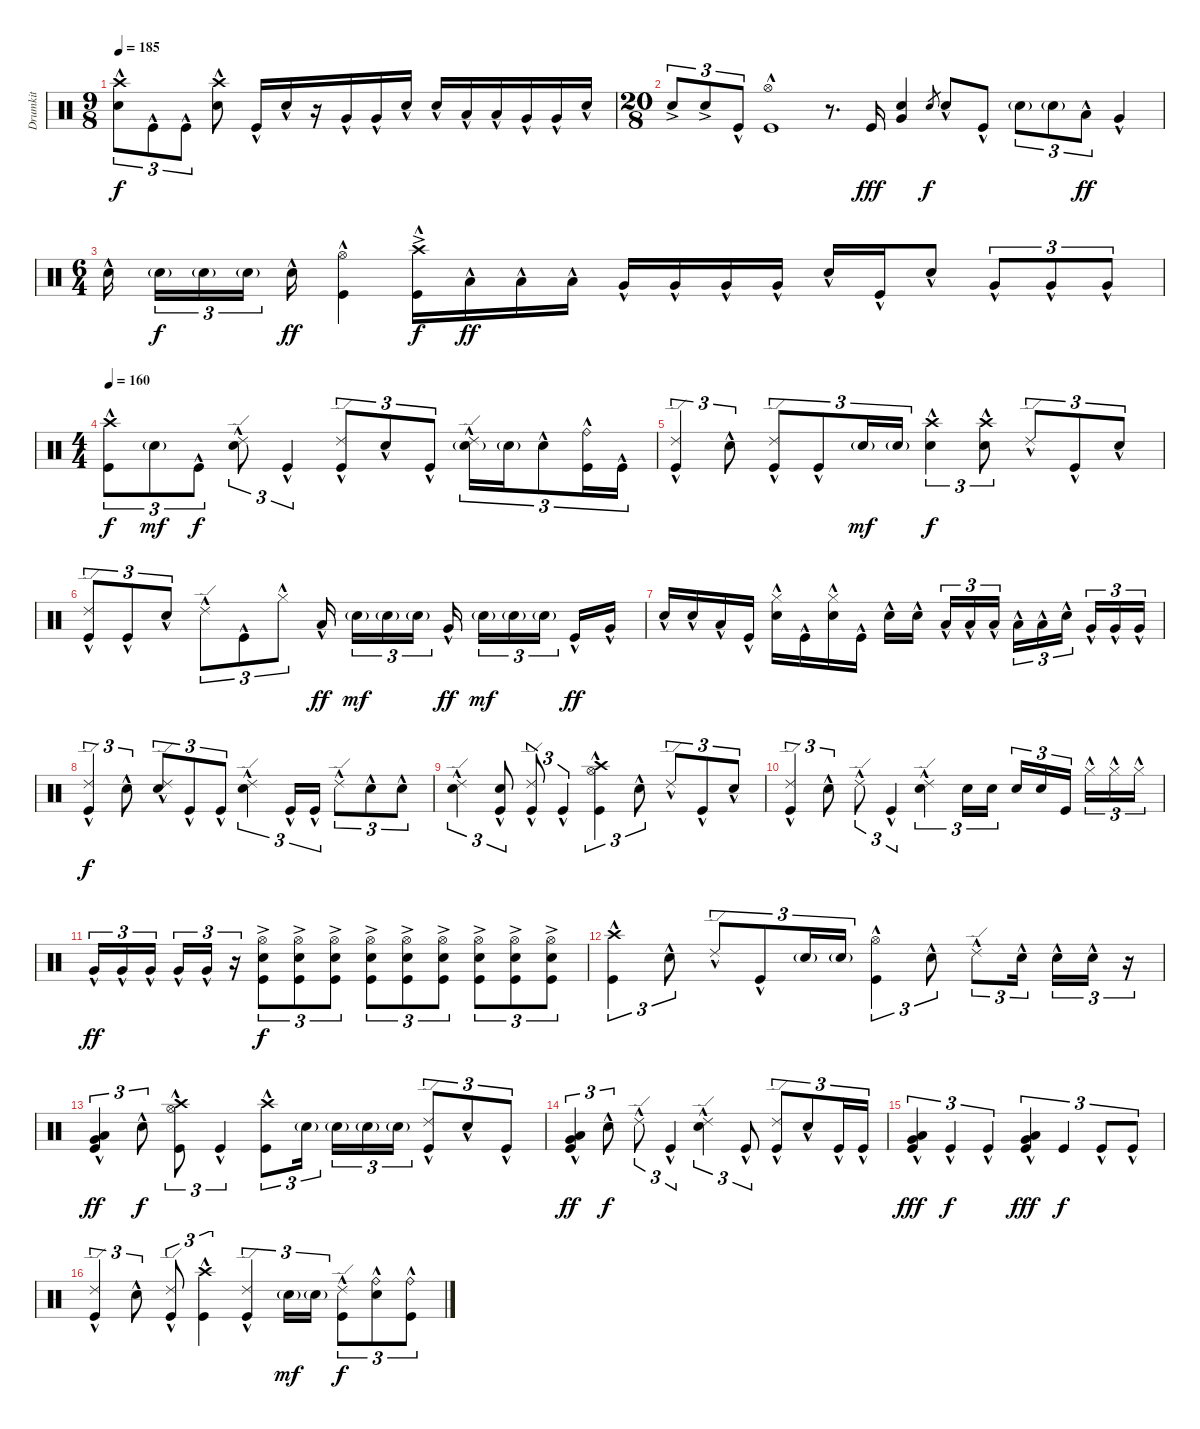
\track ("Drumkit" "Drumkit") {instrument percussion}
\staff {score}
\articulation defaults
\ts (9 8)
\tempo 185
\clef neutral
\ks c
("Snare (hit) 2"{hac} "Crash high (hit)"{hac}).8{tu (3 2) dy f} "Kick (hit)"{hac}.8{tu (3 2)} "Kick (hit)"{hac}.8{tu (3 2)} ("Snare (hit) 2"{hac} "Crash high (hit)"{hac}).8 "Kick (hit)"{hac}.16 "Snare (hit) 2"{hac}.16 r.16 "Very Low Tom (hit)"{hac}.16 "Very Low Tom (hit)"{hac}.16 "Snare (hit) 2"{hac}.16 "Snare (hit) 2"{hac}.16 "Low Tom (hit)"{hac}.16 "Low Tom (hit)"{hac}.16 "Very Low Tom (hit)"{hac}.16 "Very Low Tom (hit)"{hac}.16 "Snare (hit) 2"{hac}.16 |
\ts (20 8)
"Snare (hit) 2"{ac}.8{tu (3 2)} "Snare (hit) 2"{ac}.8{tu (3 2)} "Kick (hit)"{hac}.8{tu (3 2)} ("Kick (hit)"{hac} "Hi-Hat (open)"{hac}).1 r.8{d} "Kick (hit)".16{dy fff} ("Very Low Tom (hit)" "Snare (hit) 2").4 "Snare (hit)".8{gr dy f} "Snare (hit) 2"{hac}.8 "Kick (hit)"{hac}.8 "Snare (hit) 2"{g}.8{tu (3 2)} "Snare (hit) 2"{g}.8{tu (3 2)} "Low Tom (hit)"{hac}.8{tu (3 2) dy ff} "Very Low Tom (hit)"{hac}.4 |
\ts (6 4)
"Snare (hit) 2"{hac}.16 "Snare (hit) 2"{g}.16{tu (3 2) dy f} "Snare (hit) 2"{g}.16{tu (3 2)} "Snare (hit) 2"{g}.16{tu (3 2)} "Snare (hit) 2"{hac}.16{dy ff} ("Kick (hit)"{hac} "Hi-Hat (open)"{hac}).4 ("Crash high (hit)"{ac} "Kick (hit)"{hac}).16{dy f} "Low Tom (hit)"{hac}.16{dy ff} "Low Tom (hit)"{hac}.16 "Low Tom (hit)"{hac}.16 "Very Low Tom (hit)"{hac}.16 "Very Low Tom (hit)"{hac}.16 "Very Low Tom (hit)"{hac}.16 "Very Low Tom (hit)"{hac}.16 "Snare (hit) 2"{hac}.16 "Kick (hit)"{hac}.16 "Snare (hit) 2"{hac}.8 "Very Low Tom (hit)"{hac}.8{tu (3 2)} "Very Low Tom (hit)"{hac}.8{tu (3 2)} "Very Low Tom (hit)"{hac}.8{tu (3 2)} |
\ts (4 4)
\tempo 160
("Kick (hit)"{hac} "Crash high (hit)"{hac}).8{tu (3 2) dy f} "Snare (hit) 2"{g}.8{tu (3 2) dy mf} "Kick (hit)"{hac}.8{tu (3 2) dy f} ("Snare (hit) 2"{hac} "Ride (edge) 2"{hac}).8{tu (3 2)} "Kick (hit)"{hac}.4{tu (3 2)} ("Kick (hit)"{hac} "Ride (edge) 2"{hac}).8{tu (3 2)} "Snare (hit) 2"{hac}.8{tu (3 2)} "Kick (hit)"{hac}.8{tu (3 2)} ("Ride (edge) 2"{hac} "Snare (hit) 2"{g}).16{tu (3 2)} "Snare (hit) 2"{g}.16{tu (3 2)} "Snare (hit) 2"{hac}.8{tu (3 2)} ("Ride (bell)"{hac} "Kick (hit)"{hac}).16{tu (3 2)} "Kick (hit)"{hac}.16{tu (3 2)} |
("Kick (hit)"{hac} "Ride (edge) 2"{hac}).4{tu (3 2)} "Snare (hit) 2"{hac}.8{tu (3 2)} ("Kick (hit)"{hac} "Ride (edge) 2"{hac}).8{tu (3 2)} "Kick (hit)"{hac}.8{tu (3 2)} "Snare (hit) 2"{g}.16{tu (3 2) dy mf} "Snare (hit) 2"{g}.16{tu (3 2)} ("Snare (hit) 2"{hac} "Crash high (hit)"{hac}).4{tu (3 2) dy f} ("Snare (hit) 2"{hac} "Crash high (hit)"{hac}).8{tu (3 2)} "Ride (edge) 2"{hac}.8{tu (3 2)} "Kick (hit)"{hac}.8{tu (3 2)} "Snare (hit) 2"{hac}.8{tu (3 2)} |
("Kick (hit)"{hac} "Ride (edge) 2"{hac}).8{tu (3 2)} "Kick (hit)"{hac}.8{tu (3 2)} "Snare (hit) 2"{hac}.8{tu (3 2)} "Ride (edge) 2"{hac}.8{tu (3 2)} "Kick (hit)"{hac}.8{tu (3 2)} "Hi-Hat (closed)"{hac}.8{tu (3 2)} "Low Tom (hit)"{hac}.16{dy ff} "Snare (hit) 2"{g}.16{tu (3 2) dy mf} "Snare (hit) 2"{g}.16{tu (3 2)} "Snare (hit) 2"{g}.16{tu (3 2)} "Very Low Tom (hit)"{hac}.16{dy ff} "Snare (hit) 2"{g}.16{tu (3 2) dy mf} "Snare (hit) 2"{g}.16{tu (3 2)} "Snare (hit) 2"{g}.16{tu (3 2)} "Kick (hit)"{hac}.16{dy ff} "Very Low Tom (hit)"{hac}.16 |
"Snare (hit) 2"{hac}.16 "Snare (hit) 2"{hac}.16 "Low Tom (hit)"{hac}.16 "Kick (hit)"{hac}.16 ("Snare (hit) 2"{hac} "Hi-Hat (closed)"{hac}).16 "Kick (hit)"{hac}.16 ("Snare (hit) 2"{hac} "Hi-Hat (closed)"{hac}).16 "Kick (hit)"{hac}.16 "Snare (hit) 2"{hac}.16 "Snare (hit) 2"{hac}.16 "Low Tom (hit)"{hac}.16{tu (3 2)} "Low Tom (hit)"{hac}.16{tu (3 2)} "Low Tom (hit)"{hac}.16{tu (3 2)} "Low Tom (hit)"{hac}.16{tu (3 2)} "Low Tom (hit)"{hac}.16{tu (3 2)} "Snare (hit) 2"{hac}.16{tu (3 2)} "Very Low Tom (hit)"{hac}.16{tu (3 2)} "Very Low Tom (hit)"{hac}.16{tu (3 2)} "Very Low Tom (hit)"{hac}.16{tu (3 2)} |
("Kick (hit)"{hac} "Ride (edge) 2"{hac}).4{tu (3 2) dy f} "Snare (hit) 2"{hac}.8{tu (3 2)} ("Snare (hit) 2"{hac} "Ride (edge) 2"{hac}).8{tu (3 2)} "Kick (hit)"{hac}.8{tu (3 2)} "Kick (hit)"{hac}.8{tu (3 2)} ("Snare (hit) 2"{hac} "Ride (edge) 2"{hac}).4{tu (3 2)} "Kick (hit)"{hac}.16{tu (3 2)} "Kick (hit)"{hac}.16{tu (3 2)} "Ride (edge) 2"{hac}.8{tu (3 2)} "Snare (hit) 2"{hac}.8{tu (3 2)} "Snare (hit) 2"{hac}.8{tu (3 2)} |
("Snare (hit) 2"{hac} "Ride (edge) 2"{hac}).4{tu (3 2)} ("Snare (hit) 2"{hac} "Kick (hit)"{hac}).8{tu (3 2)} ("Kick (hit)"{hac} "Ride (edge) 2"{hac}).8{tu (3 2)} "Kick (hit)"{hac}.4{tu (3 2)} ("Kick (hit)"{hac} "Hi-Hat (open)"{hac} "Crash high (hit)"{hac}).4{tu (3 2)} "Snare (hit) 2"{hac}.8{tu (3 2)} "Ride (edge) 2"{hac}.8{tu (3 2)} "Kick (hit)"{hac}.8{tu (3 2)} "Snare (hit) 2"{hac}.8{tu (3 2)} |
("Kick (hit)"{hac} "Ride (edge) 2"{hac}).4{tu (3 2)} "Snare (hit) 2"{hac}.8{tu (3 2)} "Ride (edge) 2"{hac}.8{tu (3 2)} "Kick (hit)"{hac}.4{tu (3 2)} ("Snare (hit) 2"{hac} "Ride (edge) 2"{hac}).4{tu (3 2)} "Snare (hit) 2".16{tu (3 2)} "Snare (hit) 2".16{tu (3 2)} "Snare (hit) 2".16{tu (3 2)} "Snare (hit) 2".16{tu (3 2)} "Kick (hit)".16{tu (3 2)} "Hi-Hat (closed)"{hac}.16{tu (3 2)} "Hi-Hat (closed)"{hac}.16{tu (3 2)} "Hi-Hat (closed)"{hac}.16{tu (3 2)} |
"Very Low Tom (hit)"{hac}.16{tu (3 2) dy ff} "Very Low Tom (hit)"{hac}.16{tu (3 2)} "Very Low Tom (hit)"{hac}.16{tu (3 2)} "Very Low Tom (hit)"{hac}.16{tu (3 2)} "Very Low Tom (hit)"{hac}.16{tu (3 2)} r.16{tu (3 2)} ("Snare (hit) 2"{ac} "Hi-Hat (open)"{ac} "Kick (hit)"{ac}).8{tu (3 2) dy f} ("Snare (hit) 2"{ac} "Hi-Hat (open)"{ac} "Kick (hit)"{ac}).8{tu (3 2)} ("Snare (hit) 2"{ac} "Hi-Hat (open)"{ac} "Kick (hit)"{ac}).8{tu (3 2)} ("Snare (hit) 2"{ac} "Hi-Hat (open)"{ac} "Kick (hit)"{ac}).8{tu (3 2)} ("Snare (hit) 2"{ac} "Hi-Hat (open)"{ac} "Kick (hit)"{ac}).8{tu (3 2)} ("Snare (hit) 2"{ac} "Hi-Hat (open)"{ac} "Kick (hit)"{ac}).8{tu (3 2)} ("Snare (hit) 2"{ac} "Hi-Hat (open)"{ac} "Kick (hit)"{ac}).8{tu (3 2)} ("Snare (hit) 2"{ac} "Hi-Hat (open)"{ac} "Kick (hit)"{ac}).8{tu (3 2)} ("Snare (hit) 2"{ac} "Hi-Hat (open)"{ac} "Kick (hit)"{ac}).8{tu (3 2)} |
("Kick (hit)"{hac} "Crash high (hit)"{hac}).4{tu (3 2)} "Snare (hit) 2"{hac}.8{tu (3 2)} "Ride (edge) 2"{hac}.8{tu (3 2)} "Kick (hit)"{hac}.8{tu (3 2)} "Snare (hit) 2"{g}.16{tu (3 2)} "Snare (hit) 2"{g}.16{tu (3 2)} ("Kick (hit)"{hac} "Hi-Hat (open)"{hac}).4{tu (3 2)} "Snare (hit) 2"{hac}.8{tu (3 2)} "Ride (edge) 2"{hac}.8{tu (3 2)} "Snare (hit) 2"{hac}.16{tu (3 2)} "Snare (hit) 2"{hac}.16{tu (3 2)} "Snare (hit) 2"{hac}.16{tu (3 2)} r.16{tu (3 2)} |
("Very Low Tom (hit)"{hac} "Kick (hit)"{hac} "Low Tom (hit)"{hac}).4{tu (3 2) dy ff} "Snare (hit) 2"{hac}.8{tu (3 2) dy f} ("Kick (hit)"{hac} "Hi-Hat (open)"{hac} "Crash high (hit)"{hac}).8{tu (3 2)} "Kick (hit)"{hac}.4{tu (3 2)} ("Kick (hit)" "Crash high (hit)"{hac}).8{tu (3 2)} "Snare (hit) 2"{g}.16{tu (3 2)} "Snare (hit) 2"{g}.16{tu (3 2)} "Snare (hit) 2"{g}.16{tu (3 2)} "Snare (hit) 2"{g}.16{tu (3 2)} ("Kick (hit)"{hac} "Ride (edge) 2"{hac}).8{tu (3 2)} "Snare (hit) 2"{hac}.8{tu (3 2)} "Kick (hit)"{hac}.8{tu (3 2)} |
("Very Low Tom (hit)"{hac} "Kick (hit)"{hac} "Low Tom (hit)"{hac}).4{tu (3 2) dy ff} "Snare (hit) 2"{hac}.8{tu (3 2) dy f} "Ride (edge) 2"{hac}.8{tu (3 2)} "Kick (hit)"{hac}.4{tu (3 2)} ("Snare (hit) 2"{hac} "Ride (edge) 2"{hac}).4{tu (3 2)} "Kick (hit)"{hac}.8{tu (3 2)} ("Kick (hit)"{hac} "Ride (edge) 2"{hac}).8{tu (3 2)} "Snare (hit) 2"{hac}.8{tu (3 2)} "Kick (hit)"{hac}.16{tu (3 2)} "Kick (hit)"{hac}.16{tu (3 2)} |
("Low Tom (hit)"{hac} "Very Low Tom (hit)"{hac} "Kick (hit)"{hac}).4{tu (3 2) dy fff} "Kick (hit)"{hac}.4{tu (3 2) dy f} "Kick (hit)"{hac}.4{tu (3 2)} ("Low Tom (hit)"{hac} "Very Low Tom (hit)"{hac} "Kick (hit)"{hac}).4{tu (3 2) dy fff} "Kick (hit)".4{tu (3 2) dy f} "Kick (hit)"{hac}.8{tu (3 2)} "Kick (hit)"{hac}.8{tu (3 2)} |
("Kick (hit)"{hac} "Ride (edge) 2"{hac}).4{tu (3 2)} "Snare (hit) 2"{hac}.8{tu (3 2)} ("Kick (hit)"{hac} "Ride (edge) 2"{hac}).8{tu (3 2)} ("Kick (hit)"{hac} "Crash high (hit)"{hac}).4{tu (3 2)} ("Kick (hit)"{hac} "Ride (edge) 2"{hac}).4{tu (3 2)} "Snare (hit) 2"{g}.16{tu (3 2) dy mf} "Snare (hit) 2"{g}.16{tu (3 2)} ("Kick (hit)"{hac} "Ride (edge) 2"{hac}).8{tu (3 2) dy f} ("Snare (hit) 2"{hac} "Ride (bell)"{hac}).8{tu (3 2)} ("Kick (hit)"{hac} "Ride (bell)"{hac}).8{tu (3 2)}
